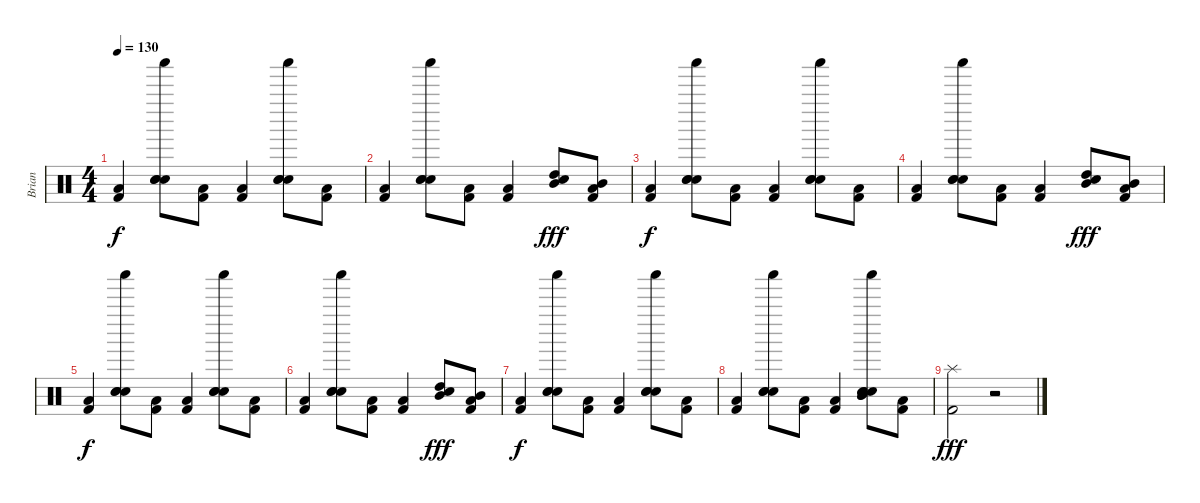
\track ("Brian" "Brian") {instrument percussion}
\staff {score}
\articulation defaults
\ts (4 4)
\tempo 130
\clef neutral
\ks c
("Kick (hit) 2" "Low Tom (hit)").4{dy f} ("Shaker (hit)" "Snare (hit) 2" "Hand Clap (hit)" "Hand Clap (hit)").8 ("Kick (hit) 2" "Low Tom (hit)").8 ("Kick (hit) 2" "Low Tom (hit)").4 ("Shaker (hit)" "Snare (hit) 2" "Hand Clap (hit)" "Hand Clap (hit)").8 ("Kick (hit) 2" "Low Tom (hit)").8 |
("Kick (hit) 2" "Low Tom (hit)").4 ("Shaker (hit)" "Snare (hit) 2" "Hand Clap (hit)" "Hand Clap (hit)").8 ("Kick (hit) 2" "Low Tom (hit)").8 ("Kick (hit) 2" "Low Tom (hit)").4 ("Mid Tom (hit)" "High Tom (hit)" "Hand Clap (hit)").8{dy fff} ("Low Tom (hit)" "Mid Tom (hit)" "Kick (hit) 2").8 |
("Kick (hit) 2" "Low Tom (hit)").4{dy f} ("Shaker (hit)" "Snare (hit) 2" "Hand Clap (hit)" "Hand Clap (hit)").8 ("Kick (hit) 2" "Low Tom (hit)").8 ("Kick (hit) 2" "Low Tom (hit)").4 ("Shaker (hit)" "Snare (hit) 2" "Hand Clap (hit)" "Hand Clap (hit)").8 ("Kick (hit) 2" "Low Tom (hit)").8 |
("Kick (hit) 2" "Low Tom (hit)").4 ("Shaker (hit)" "Snare (hit) 2" "Hand Clap (hit)" "Hand Clap (hit)").8 ("Kick (hit) 2" "Low Tom (hit)").8 ("Kick (hit) 2" "Low Tom (hit)").4 ("Mid Tom (hit)" "High Tom (hit)" "Hand Clap (hit)").8{dy fff} ("Low Tom (hit)" "Mid Tom (hit)" "Kick (hit) 2").8 |
("Kick (hit) 2" "Low Tom (hit)").4{dy f} ("Shaker (hit)" "Snare (hit) 2" "Hand Clap (hit)" "Hand Clap (hit)").8 ("Kick (hit) 2" "Low Tom (hit)").8 ("Kick (hit) 2" "Low Tom (hit)").4 ("Shaker (hit)" "Snare (hit) 2" "Hand Clap (hit)" "Hand Clap (hit)").8 ("Kick (hit) 2" "Low Tom (hit)").8 |
("Kick (hit) 2" "Low Tom (hit)").4 ("Shaker (hit)" "Snare (hit) 2" "Hand Clap (hit)" "Hand Clap (hit)").8 ("Kick (hit) 2" "Low Tom (hit)").8 ("Kick (hit) 2" "Low Tom (hit)").4 ("Mid Tom (hit)" "High Tom (hit)" "Hand Clap (hit)").8{dy fff} ("Low Tom (hit)" "Mid Tom (hit)" "Kick (hit) 2").8 |
("Kick (hit) 2" "Low Tom (hit)").4{dy f} ("Shaker (hit)" "Snare (hit) 2" "Hand Clap (hit)" "Hand Clap (hit)").8 ("Kick (hit) 2" "Low Tom (hit)").8 ("Kick (hit) 2" "Low Tom (hit)").4 ("Shaker (hit)" "Snare (hit) 2" "Hand Clap (hit)" "Hand Clap (hit)").8 ("Kick (hit) 2" "Low Tom (hit)").8 |
("Kick (hit) 2" "Low Tom (hit)").4 ("Shaker (hit)" "Snare (hit) 2" "Hand Clap (hit)" "Hand Clap (hit)").8 ("Kick (hit) 2" "Low Tom (hit)").8 ("Kick (hit) 2" "Low Tom (hit)").4 ("Shaker (hit)" "Snare (hit) 2" "Hand Clap (hit)" "Hand Clap (hit)" "Mid Tom (hit)" "Mid Tom (hit)").8 ("Kick (hit) 2" "Low Tom (hit)").8 |
("Splash (hit)" "Kick (hit) 2").2{dy fff} r.2
